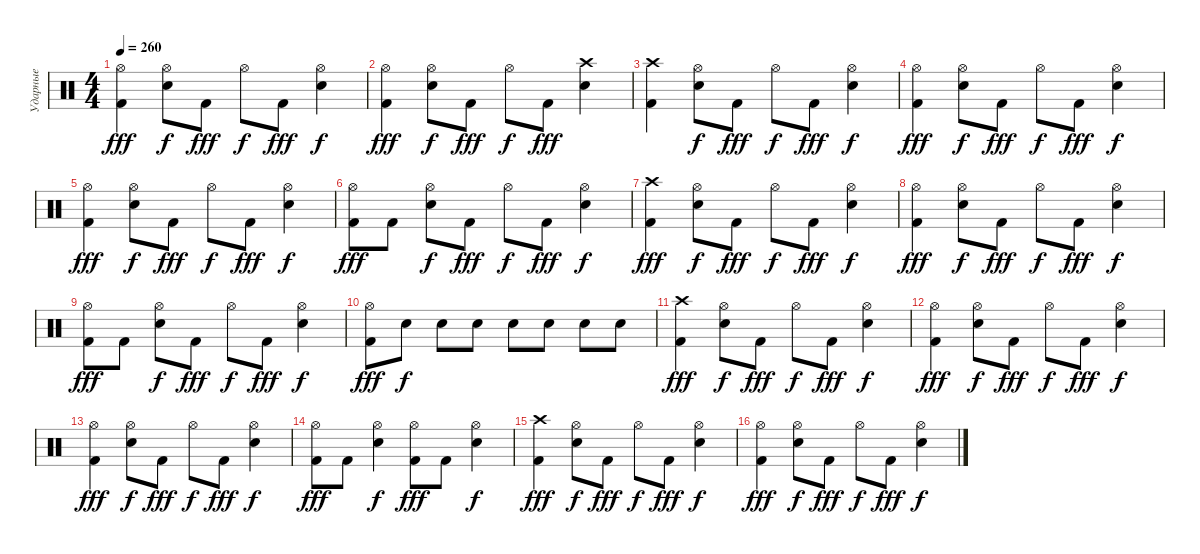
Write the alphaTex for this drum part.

\track ("Ударные" "Ударные") {instrument percussion}
\staff {score}
\articulation defaults
\ts (4 4)
\tempo 260
\clef neutral
\ks c
("Kick (hit) 2" "Hi-Hat (open)").4{dy fff} ("Snare (hit) 2" "Hi-Hat (open)").8{dy f} "Kick (hit) 2".8{dy fff} "Hi-Hat (open)".8{dy f} "Kick (hit) 2".8{dy fff} ("Snare (hit) 2" "Hi-Hat (open)").4{dy f} |
("Kick (hit) 2" "Hi-Hat (open)").4{dy fff} ("Snare (hit) 2" "Hi-Hat (open)").8{dy f} "Kick (hit) 2".8{dy fff} "Hi-Hat (open)".8{dy f} "Kick (hit) 2".8{dy fff} ("Snare (hit) 2" "Crash high (hit)").4 |
("Kick (hit) 2" "Crash high (hit)").4 ("Snare (hit) 2" "Hi-Hat (open)").8{dy f} "Kick (hit) 2".8{dy fff} "Hi-Hat (open)".8{dy f} "Kick (hit) 2".8{dy fff} ("Snare (hit) 2" "Hi-Hat (open)").4{dy f} |
("Kick (hit) 2" "Hi-Hat (open)").4{dy fff} ("Snare (hit) 2" "Hi-Hat (open)").8{dy f} "Kick (hit) 2".8{dy fff} "Hi-Hat (open)".8{dy f} "Kick (hit) 2".8{dy fff} ("Snare (hit) 2" "Hi-Hat (open)").4{dy f} |
("Kick (hit) 2" "Hi-Hat (open)").4{dy fff} ("Snare (hit) 2" "Hi-Hat (open)").8{dy f} "Kick (hit) 2".8{dy fff} "Hi-Hat (open)".8{dy f} "Kick (hit) 2".8{dy fff} ("Snare (hit) 2" "Hi-Hat (open)").4{dy f} |
("Kick (hit) 2" "Hi-Hat (open)").8{dy fff} "Kick (hit) 2".8 ("Snare (hit) 2" "Hi-Hat (open)").8{dy f} "Kick (hit) 2".8{dy fff} "Hi-Hat (open)".8{dy f} "Kick (hit) 2".8{dy fff} ("Snare (hit) 2" "Hi-Hat (open)").4{dy f} |
("Kick (hit) 2" "Crash high (hit)").4{dy fff} ("Snare (hit) 2" "Hi-Hat (open)").8{dy f} "Kick (hit) 2".8{dy fff} "Hi-Hat (open)".8{dy f} "Kick (hit) 2".8{dy fff} ("Snare (hit) 2" "Hi-Hat (open)").4{dy f} |
("Kick (hit) 2" "Hi-Hat (open)").4{dy fff} ("Snare (hit) 2" "Hi-Hat (open)").8{dy f} "Kick (hit) 2".8{dy fff} "Hi-Hat (open)".8{dy f} "Kick (hit) 2".8{dy fff} ("Snare (hit) 2" "Hi-Hat (open)").4{dy f} |
("Kick (hit) 2" "Hi-Hat (open)").8{dy fff} "Kick (hit) 2".8 ("Snare (hit) 2" "Hi-Hat (open)").8{dy f} "Kick (hit) 2".8{dy fff} "Hi-Hat (open)".8{dy f} "Kick (hit) 2".8{dy fff} ("Snare (hit) 2" "Hi-Hat (open)").4{dy f} |
("Kick (hit) 2" "Hi-Hat (open)").8{dy fff} "Snare (hit) 2".8{dy f} "Snare (hit) 2".8 "Snare (hit) 2".8 "Snare (hit) 2".8 "Snare (hit) 2".8 "Snare (hit) 2".8 "Snare (hit) 2".8 |
("Kick (hit) 2" "Crash high (hit)").4{dy fff} ("Snare (hit) 2" "Hi-Hat (open)").8{dy f} "Kick (hit) 2".8{dy fff} "Hi-Hat (open)".8{dy f} "Kick (hit) 2".8{dy fff} ("Snare (hit) 2" "Hi-Hat (open)").4{dy f} |
("Kick (hit) 2" "Hi-Hat (open)").4{dy fff} ("Snare (hit) 2" "Hi-Hat (open)").8{dy f} "Kick (hit) 2".8{dy fff} "Hi-Hat (open)".8{dy f} "Kick (hit) 2".8{dy fff} ("Snare (hit) 2" "Hi-Hat (open)").4{dy f} |
("Kick (hit) 2" "Hi-Hat (open)").4{dy fff} ("Snare (hit) 2" "Hi-Hat (open)").8{dy f} "Kick (hit) 2".8{dy fff} "Hi-Hat (open)".8{dy f} "Kick (hit) 2".8{dy fff} ("Snare (hit) 2" "Hi-Hat (open)").4{dy f} |
("Kick (hit) 2" "Hi-Hat (open)").8{dy fff} "Kick (hit) 2".8 ("Snare (hit) 2" "Hi-Hat (open)").4{dy f} ("Kick (hit) 2" "Hi-Hat (open)").8{dy fff} "Kick (hit) 2".8 ("Snare (hit) 2" "Hi-Hat (open)").4{dy f} |
("Kick (hit) 2" "Crash high (hit)").4{dy fff} ("Snare (hit) 2" "Hi-Hat (open)").8{dy f} "Kick (hit) 2".8{dy fff} "Hi-Hat (open)".8{dy f} "Kick (hit) 2".8{dy fff} ("Snare (hit) 2" "Hi-Hat (open)").4{dy f} |
("Kick (hit) 2" "Hi-Hat (open)").4{dy fff} ("Snare (hit) 2" "Hi-Hat (open)").8{dy f} "Kick (hit) 2".8{dy fff} "Hi-Hat (open)".8{dy f} "Kick (hit) 2".8{dy fff} ("Snare (hit) 2" "Hi-Hat (open)").4{dy f}
